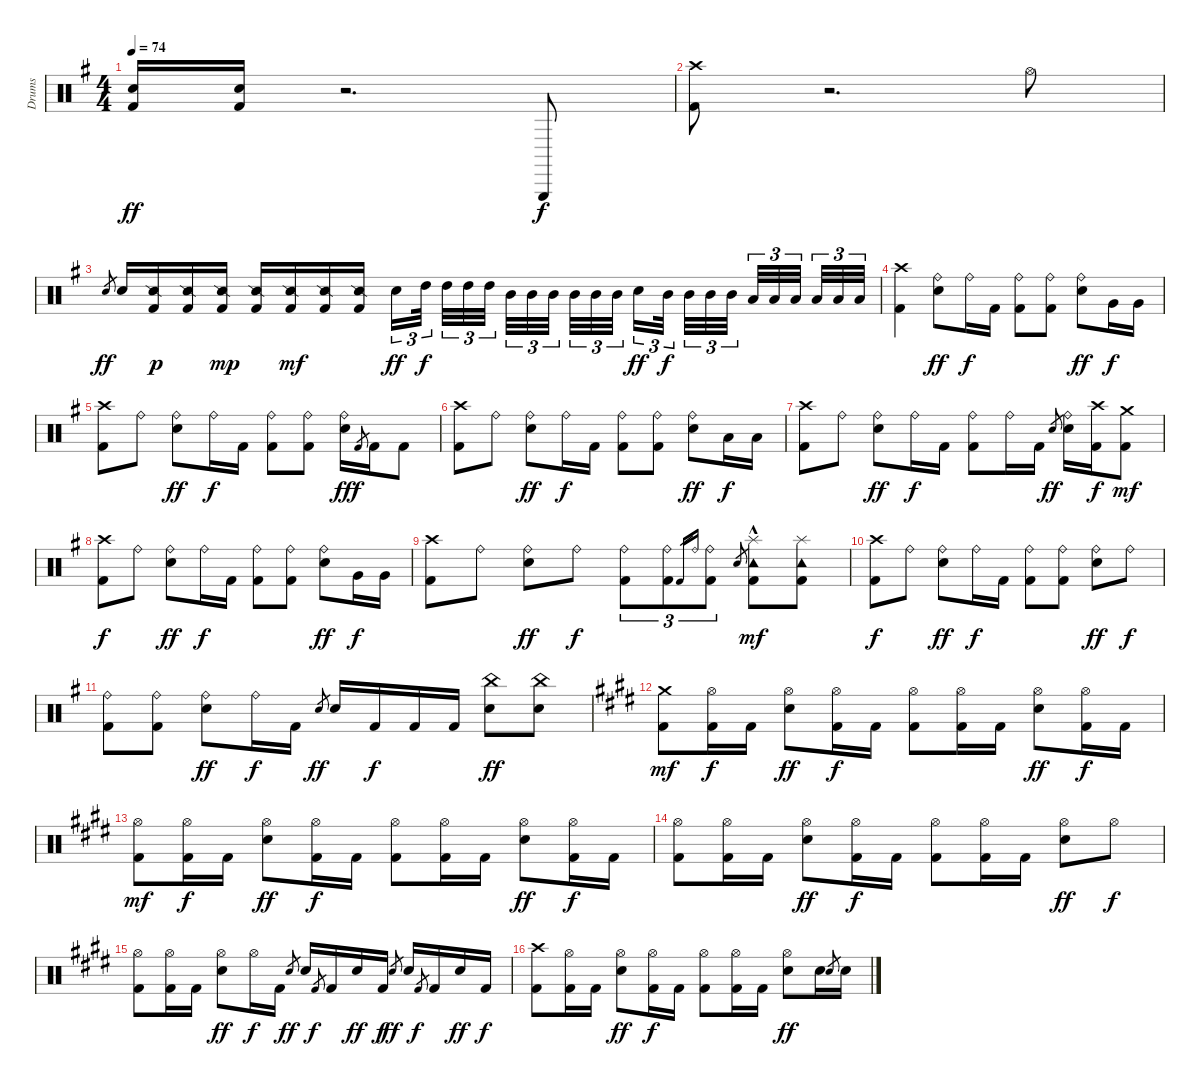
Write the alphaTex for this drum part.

\track ("Drums" "Drums") {instrument percussion}
\staff {score}
\articulation defaults
\ts (4 4)
\tempo 74
\clef neutral
\ks g
("Kick (hit) 2" "Electric Snare (hit)").16{dy ff} ("Kick (hit) 2" "Electric Snare (hit)").16 r.2{d} "Triangle (hit)".8{dy f} |
("Kick (hit) 2" "Crash high (hit)").8 r.2{d} "Hi-Hat (open)".8 |
"Electric Snare (hit)".8{gr dy ff} "Electric Snare (hit)".16 ("Kick (hit) 2" "Snare (side stick) 2").16{dy p} ("Kick (hit) 2" "Snare (side stick) 2").16 ("Kick (hit) 2" "Snare (side stick) 2").16{dy mp} ("Kick (hit) 2" "Snare (side stick) 2").16 ("Kick (hit) 2" "Snare (side stick) 2").16{dy mf} ("Kick (hit) 2" "Snare (side stick) 2").16 ("Kick (hit) 2" "Snare (side stick) 2").16 "Electric Snare (hit)".16{tu (3 2) dy ff} "High Tom (hit)".32{tu (3 2) dy f} "High Tom (hit)".32{tu (3 2)} "High Tom (hit)".32{tu (3 2)} "High Tom (hit)".32{tu (3 2)} "Mid Tom (hit)".32{tu (3 2)} "Mid Tom (hit)".32{tu (3 2)} "Mid Tom (hit)".32{tu (3 2)} "Mid Tom (hit)".32{tu (3 2)} "Mid Tom (hit)".32{tu (3 2)} "Mid Tom (hit)".32{tu (3 2)} "Electric Snare (hit)".16{tu (3 2) dy ff} "Mid Tom (hit)".32{tu (3 2) dy f} "Mid Tom (hit)".32{tu (3 2)} "Mid Tom (hit)".32{tu (3 2)} "Mid Tom (hit)".32{tu (3 2)} "Low Tom (hit)".32{tu (3 2)} "Low Tom (hit)".32{tu (3 2)} "Low Tom (hit)".32{tu (3 2)} "Low Tom (hit)".32{tu (3 2)} "Low Tom (hit)".32{tu (3 2)} "Low Tom (hit)".32{tu (3 2)} |
("Kick (hit) 2" "Crash high (hit)").4 ("Electric Snare (hit)" "Ride (bell)").8{dy ff} "Ride (bell)".16{dy f} "Kick (hit) 2".16 ("Kick (hit) 2" "Ride (bell)").8 ("Kick (hit) 2" "Ride (bell)").8 ("Electric Snare (hit)" "Ride (bell)").8{dy ff} "Very Low Tom (hit)".16{dy f} "Very Low Tom (hit)".16 |
("Kick (hit) 2" "Crash high (hit)").8 "Ride (bell)".8 ("Electric Snare (hit)" "Ride (bell)").8{dy ff} "Ride (bell)".16{dy f} "Kick (hit) 2".16 ("Kick (hit) 2" "Ride (bell)").8 ("Kick (hit) 2" "Ride (bell)").8 ("Electric Snare (hit)" "Ride (bell)").16{dy ff} "Kick (hit) 2".8{gr dy f} "Kick (hit) 2".16 "Kick (hit) 2".8 |
("Kick (hit) 2" "Crash high (hit)").8 "Ride (bell)".8 ("Electric Snare (hit)" "Ride (bell)").8{dy ff} "Ride (bell)".16{dy f} "Kick (hit) 2".16 ("Kick (hit) 2" "Ride (bell)").8 ("Kick (hit) 2" "Ride (bell)").8 ("Electric Snare (hit)" "Ride (bell)").8{dy ff} "Low Floor Tom (hit)".16{dy f} "Low Floor Tom (hit)".16 |
("Kick (hit) 2" "Crash high (hit)").8 "Ride (bell)".8 ("Electric Snare (hit)" "Ride (bell)").8{dy ff} "Ride (bell)".16{dy f} "Kick (hit) 2".16 ("Kick (hit) 2" "Ride (bell)").8 "Ride (bell)".16 "Kick (hit) 2".16 "Electric Snare (hit)".8{gr dy ff} ("Electric Snare (hit)" "Ride (bell)").16 ("Kick (hit) 2" "Crash high (hit)").16{dy f} ("Kick (hit) 2" "Crash medium (hit)").8{dy mf} |
("Kick (hit) 2" "Crash high (hit)").8{dy f} "Ride (bell)".8 ("Electric Snare (hit)" "Ride (bell)").8{dy ff} "Ride (bell)".16{dy f} "Kick (hit) 2".16 ("Kick (hit) 2" "Ride (bell)").8 ("Kick (hit) 2" "Ride (bell)").8 ("Electric Snare (hit)" "Ride (bell)").8{dy ff} "Very Low Tom (hit)".16{dy f} "Very Low Tom (hit)".16 |
("Kick (hit) 2" "Crash high (hit)").8 "Ride (bell)".8 ("Electric Snare (hit)" "Ride (bell)").8{dy ff} "Ride (bell)".8{dy f} ("Kick (hit) 2" "Ride (bell)").8{tu (3 2)} ("Kick (hit) 2" "Ride (bell)").8{tu (3 2)} "Kick (hit) 2".16{gr} "Ride (bell)".16{gr} ("Kick (hit) 2" "Ride (bell)").8{tu (3 2)} "Electric Snare (hit)".8{gr} ("Kick (hit) 2"{hac} "Tambourine (hit)"{hac} "Splash (hit)"{hac}).8{dy mf} ("Kick (hit) 2" "Tambourine (hit)" "Splash (hit)").8 |
("Kick (hit) 2" "Crash high (hit)").8{dy f} "Ride (bell)".8 ("Electric Snare (hit)" "Ride (bell)").8{dy ff} "Ride (bell)".16{dy f} "Kick (hit) 2".16 ("Kick (hit) 2" "Ride (bell)").8 ("Kick (hit) 2" "Ride (bell)").8 ("Electric Snare (hit)" "Ride (bell)").8{dy ff} "Ride (bell)".8{dy f} |
("Kick (hit) 2" "Ride (bell)").8 ("Kick (hit) 2" "Ride (bell)").8 ("Electric Snare (hit)" "Ride (bell)").8{dy ff} "Ride (bell)".16{dy f} "Kick (hit) 2".16 "Electric Snare (hit)".8{gr dy ff} "Electric Snare (hit)".16 "Kick (hit) 2".16{dy f} "Kick (hit) 2".16 "Kick (hit) 2".16 ("Electric Snare (hit)" "China (hit)").8{dy ff} ("Electric Snare (hit)" "China (hit)").8 |
\ks e
("Kick (hit) 2" "Crash medium (hit)").8{dy mf} ("Kick (hit) 2" "Hi-Hat (open)").16{dy f} "Kick (hit) 2".16 ("Electric Snare (hit)" "Hi-Hat (open)").8{dy ff} ("Kick (hit) 2" "Hi-Hat (open)").16{dy f} "Kick (hit) 2".16 ("Kick (hit) 2" "Hi-Hat (open)").8 ("Kick (hit) 2" "Hi-Hat (open)").16 "Kick (hit) 2".16 ("Electric Snare (hit)" "Hi-Hat (open)").8{dy ff} ("Kick (hit) 2" "Hi-Hat (open)").16{dy f} "Kick (hit) 2".16 |
("Kick (hit) 2" "Hi-Hat (open)").8{dy mf} ("Kick (hit) 2" "Hi-Hat (open)").16{dy f} "Kick (hit) 2".16 ("Electric Snare (hit)" "Hi-Hat (open)").8{dy ff} ("Kick (hit) 2" "Hi-Hat (open)").16{dy f} "Kick (hit) 2".16 ("Kick (hit) 2" "Hi-Hat (open)").8 ("Kick (hit) 2" "Hi-Hat (open)").16 "Kick (hit) 2".16 ("Electric Snare (hit)" "Hi-Hat (open)").8{dy ff} ("Kick (hit) 2" "Hi-Hat (open)").16{dy f} "Kick (hit) 2".16 |
("Kick (hit) 2" "Hi-Hat (open)").8 ("Kick (hit) 2" "Hi-Hat (open)").16 "Kick (hit) 2".16 ("Electric Snare (hit)" "Hi-Hat (open)").8{dy ff} ("Kick (hit) 2" "Hi-Hat (open)").16{dy f} "Kick (hit) 2".16 ("Kick (hit) 2" "Hi-Hat (open)").8 ("Kick (hit) 2" "Hi-Hat (open)").16 "Kick (hit) 2".16 ("Electric Snare (hit)" "Hi-Hat (open)").8{dy ff} "Hi-Hat (open)".8{dy f} |
("Kick (hit) 2" "Hi-Hat (open)").8 ("Kick (hit) 2" "Hi-Hat (open)").16 "Kick (hit) 2".16 ("Electric Snare (hit)" "Hi-Hat (open)").8{dy ff} "Hi-Hat (open)".16{dy f} "Kick (hit) 2".16 "Electric Snare (hit)".8{gr dy ff} "Electric Snare (hit)".16 "Kick (hit) 2".8{gr dy f} "Kick (hit) 2".16 "Electric Snare (hit)".16{dy ff} "Kick (hit) 2".16{dy f} "Electric Snare (hit)".8{gr dy ff} "Electric Snare (hit)".16 "Kick (hit) 2".8{gr dy f} "Kick (hit) 2".16 "Electric Snare (hit)".16{dy ff} "Kick (hit) 2".16{dy f} |
("Kick (hit) 2" "Crash high (hit)").8 ("Kick (hit) 2" "Hi-Hat (open)").16 "Kick (hit) 2".16 ("Electric Snare (hit)" "Hi-Hat (open)").8{dy ff} ("Kick (hit) 2" "Hi-Hat (open)").16{dy f} "Kick (hit) 2".16 ("Kick (hit) 2" "Hi-Hat (open)").8 ("Kick (hit) 2" "Hi-Hat (open)").16 "Kick (hit) 2".16 ("Electric Snare (hit)" "Hi-Hat (open)").8{dy ff} "Electric Snare (hit)".16 "Electric Snare (hit)".8{gr} "Electric Snare (hit)".16
